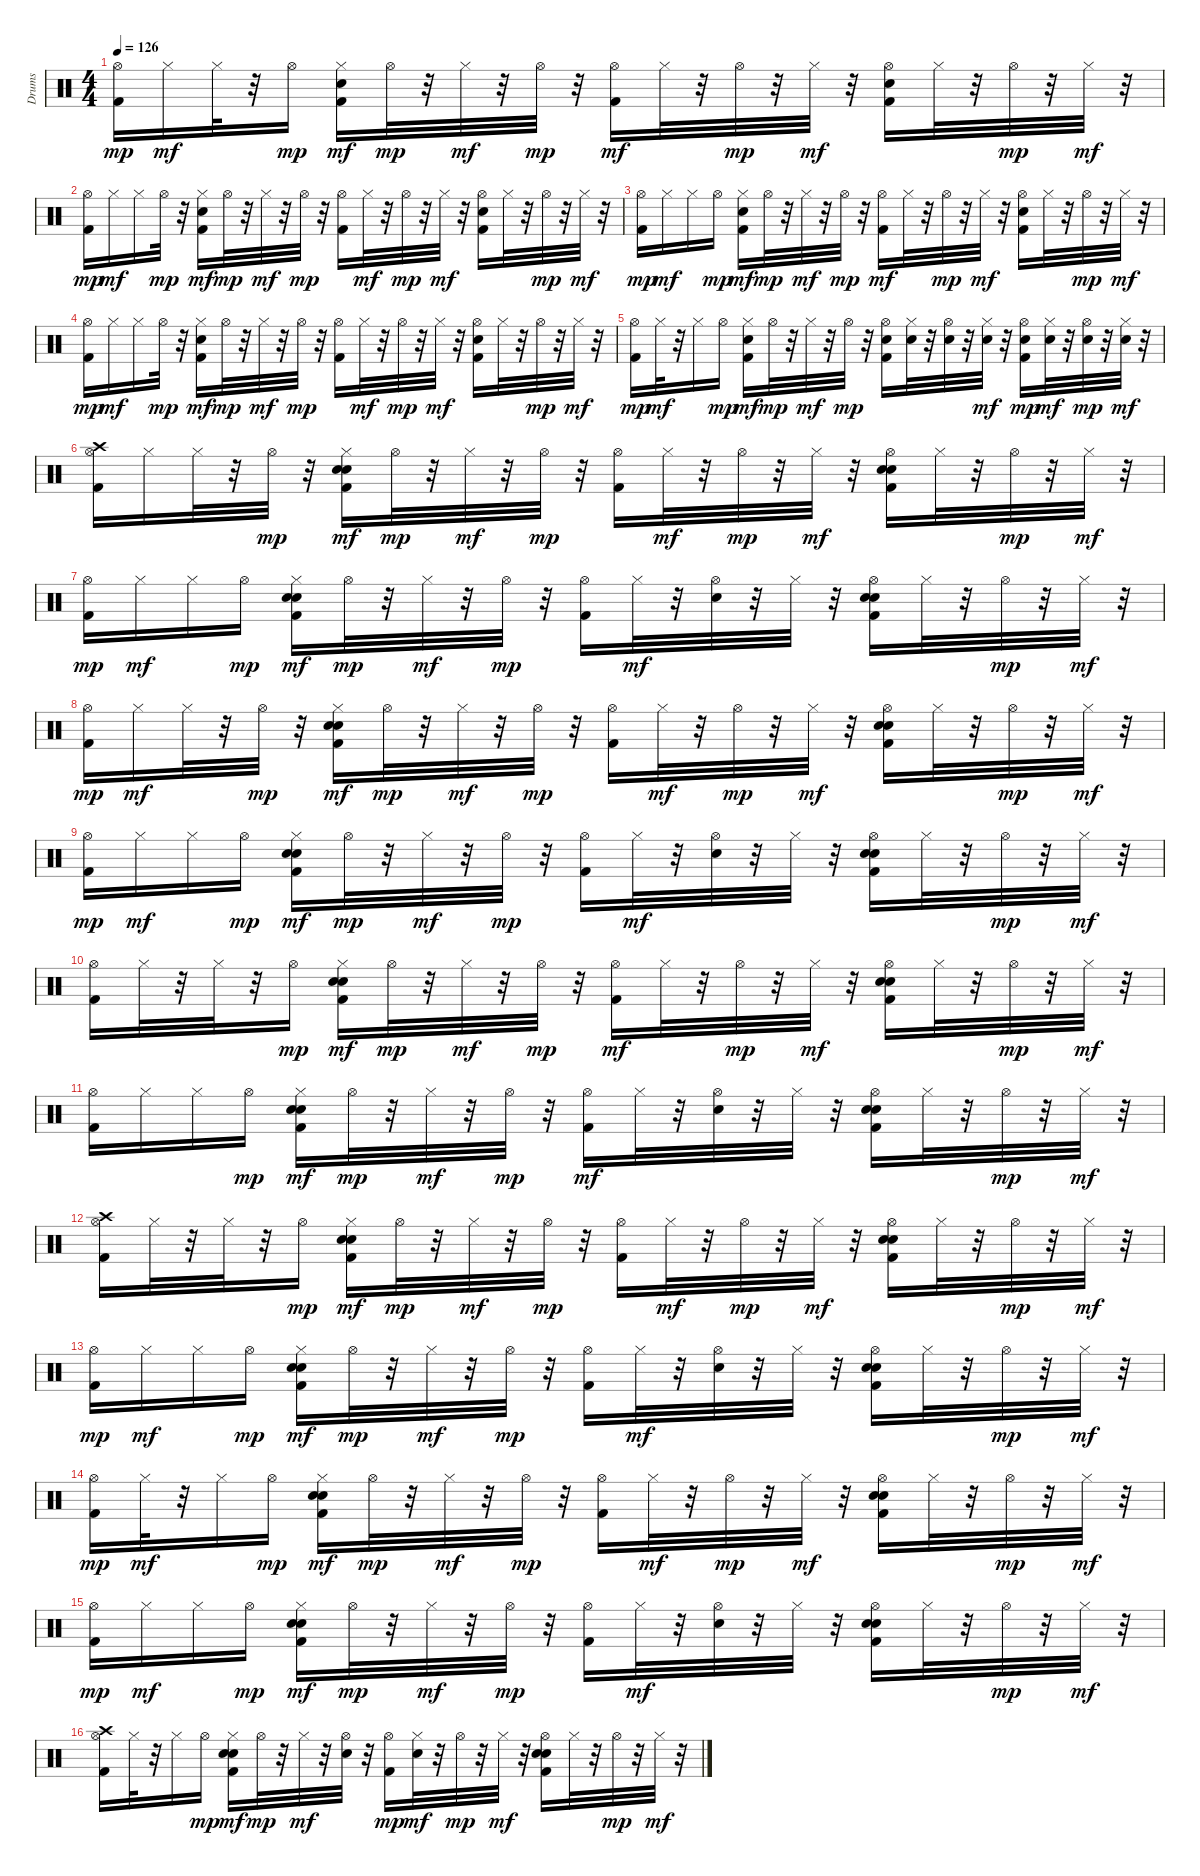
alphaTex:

\track ("Drums" "Drums") {instrument percussion}
\staff {score}
\articulation defaults
\ts (4 4)
\tempo 126
\clef neutral
\ks c
("Kick (hit) 2" "Hi-Hat (open)").16{dy mp} "Hi-Hat (closed)".16{dy mf} "Hi-Hat (closed)".32 r.32 "Hi-Hat (open)".16{dy mp} ("Kick (hit) 2" "Hi-Hat (closed)" "Electric Snare (hit)").16{dy mf} "Hi-Hat (open)".32{dy mp} r.32 "Hi-Hat (closed)".32{dy mf} r.32 "Hi-Hat (open)".32{dy mp} r.32 ("Hi-Hat (open)" "Kick (hit) 2").16{dy mf} "Hi-Hat (closed)".32 r.32 "Hi-Hat (open)".32{dy mp} r.32 "Hi-Hat (closed)".32{dy mf} r.32 ("Kick (hit) 2" "Hi-Hat (open)" "Electric Snare (hit)").16 "Hi-Hat (closed)".32 r.32 "Hi-Hat (open)".32{dy mp} r.32 "Hi-Hat (closed)".32{dy mf} r.32 |
("Kick (hit) 2" "Hi-Hat (open)").16{dy mp} "Hi-Hat (closed)".16{dy mf} "Hi-Hat (closed)".16 "Hi-Hat (open)".32{dy mp} r.32 ("Hi-Hat (closed)" "Kick (hit) 2" "Electric Snare (hit)").16{dy mf} "Hi-Hat (open)".32{dy mp} r.32 "Hi-Hat (closed)".32{dy mf} r.32 "Hi-Hat (open)".32{dy mp} r.32 ("Kick (hit) 2" "Hi-Hat (open)").16 "Hi-Hat (closed)".32{dy mf} r.32 "Hi-Hat (open)".32{dy mp} r.32 "Hi-Hat (closed)".32{dy mf} r.32 ("Kick (hit) 2" "Hi-Hat (open)" "Electric Snare (hit)").16 "Hi-Hat (closed)".32 r.32 "Hi-Hat (open)".32{dy mp} r.32 "Hi-Hat (closed)".32{dy mf} r.32 |
("Kick (hit) 2" "Hi-Hat (open)").16{dy mp} "Hi-Hat (closed)".16{dy mf} "Hi-Hat (closed)".16 "Hi-Hat (open)".16{dy mp} ("Kick (hit) 2" "Hi-Hat (closed)" "Electric Snare (hit)").16{dy mf} "Hi-Hat (open)".32{dy mp} r.32 "Hi-Hat (closed)".32{dy mf} r.32 "Hi-Hat (open)".32{dy mp} r.32 ("Hi-Hat (open)" "Kick (hit) 2").16{dy mf} "Hi-Hat (closed)".32 r.32 "Hi-Hat (open)".32{dy mp} r.32 "Hi-Hat (closed)".32{dy mf} r.32 ("Kick (hit) 2" "Hi-Hat (open)" "Electric Snare (hit)").16 "Hi-Hat (closed)".32 r.32 "Hi-Hat (open)".32{dy mp} r.32 "Hi-Hat (closed)".32{dy mf} r.32 |
("Kick (hit) 2" "Hi-Hat (open)").16{dy mp} "Hi-Hat (closed)".16{dy mf} "Hi-Hat (closed)".16 "Hi-Hat (open)".32{dy mp} r.32 ("Kick (hit) 2" "Hi-Hat (closed)" "Electric Snare (hit)").16{dy mf} "Hi-Hat (open)".32{dy mp} r.32 "Hi-Hat (closed)".32{dy mf} r.32 "Hi-Hat (open)".32{dy mp} r.32 ("Kick (hit) 2" "Hi-Hat (open)").16 "Hi-Hat (closed)".32{dy mf} r.32 "Hi-Hat (open)".32{dy mp} r.32 "Hi-Hat (closed)".32{dy mf} r.32 ("Kick (hit) 2" "Hi-Hat (open)" "Electric Snare (hit)").16 "Hi-Hat (closed)".32 r.32 "Hi-Hat (open)".32{dy mp} r.32 "Hi-Hat (closed)".32{dy mf} r.32 |
("Kick (hit) 2" "Hi-Hat (open)").16{dy mp} "Hi-Hat (closed)".32{dy mf} r.32 "Hi-Hat (closed)".16 "Hi-Hat (open)".16{dy mp} ("Kick (hit) 2" "Hi-Hat (closed)" "Electric Snare (hit)").16{dy mf} "Hi-Hat (open)".32{dy mp} r.32 "Hi-Hat (closed)".32{dy mf} r.32 "Hi-Hat (open)".32{dy mp} r.32 ("Kick (hit) 2" "Hi-Hat (open)" "Snare (hit) 2").16 ("Hi-Hat (closed)" "Snare (hit) 2").32 r.32 ("Hi-Hat (open)" "Snare (hit) 2").32 r.32 ("Hi-Hat (closed)" "Snare (hit) 2").32{dy mf} r.32 ("Kick (hit) 2" "Hi-Hat (open)" "Snare (hit) 2").16{dy mp} ("Hi-Hat (closed)" "Snare (hit) 2").32{dy mf} r.32 ("Hi-Hat (open)" "Snare (hit) 2").32{dy mp} r.32 ("Hi-Hat (closed)" "Snare (hit) 2").32{dy mf} r.32 |
("Kick (hit) 2" "Hi-Hat (open)" "Crash high (hit)").16 "Hi-Hat (closed)".16 "Hi-Hat (closed)".32 r.32 "Hi-Hat (open)".32{dy mp} r.32 ("Kick (hit) 2" "Hi-Hat (closed)" "Hand Clap (hit)" "Electric Snare (hit)").16{dy mf} "Hi-Hat (open)".32{dy mp} r.32 "Hi-Hat (closed)".32{dy mf} r.32 "Hi-Hat (open)".32{dy mp} r.32 ("Kick (hit) 2" "Hi-Hat (open)").16 "Hi-Hat (closed)".32{dy mf} r.32 "Hi-Hat (open)".32{dy mp} r.32 "Hi-Hat (closed)".32{dy mf} r.32 ("Kick (hit) 2" "Hi-Hat (open)" "Hand Clap (hit)" "Electric Snare (hit)").16 "Hi-Hat (closed)".32 r.32 "Hi-Hat (open)".32{dy mp} r.32 "Hi-Hat (closed)".32{dy mf} r.32 |
("Kick (hit) 2" "Hi-Hat (open)").16{dy mp} "Hi-Hat (closed)".16{dy mf} "Hi-Hat (closed)".16 "Hi-Hat (open)".16{dy mp} ("Kick (hit) 2" "Hi-Hat (closed)" "Hand Clap (hit)" "Electric Snare (hit)").16{dy mf} "Hi-Hat (open)".32{dy mp} r.32 "Hi-Hat (closed)".32{dy mf} r.32 "Hi-Hat (open)".32{dy mp} r.32 ("Kick (hit) 2" "Hi-Hat (open)").16 "Hi-Hat (closed)".32{dy mf} r.32 ("Hi-Hat (open)" "Hand Clap (hit)").32 r.32 "Hi-Hat (closed)".32 r.32 ("Kick (hit) 2" "Hi-Hat (open)" "Hand Clap (hit)" "Electric Snare (hit)").16 "Hi-Hat (closed)".32 r.32 "Hi-Hat (open)".32{dy mp} r.32 "Hi-Hat (closed)".32{dy mf} r.32 |
("Kick (hit) 2" "Hi-Hat (open)").16{dy mp} "Hi-Hat (closed)".16{dy mf} "Hi-Hat (closed)".32 r.32 "Hi-Hat (open)".32{dy mp} r.32 ("Kick (hit) 2" "Hi-Hat (closed)" "Hand Clap (hit)" "Electric Snare (hit)").16{dy mf} "Hi-Hat (open)".32{dy mp} r.32 "Hi-Hat (closed)".32{dy mf} r.32 "Hi-Hat (open)".32{dy mp} r.32 ("Kick (hit) 2" "Hi-Hat (open)").16 "Hi-Hat (closed)".32{dy mf} r.32 "Hi-Hat (open)".32{dy mp} r.32 "Hi-Hat (closed)".32{dy mf} r.32 ("Kick (hit) 2" "Hi-Hat (open)" "Hand Clap (hit)" "Electric Snare (hit)").16 "Hi-Hat (closed)".32 r.32 "Hi-Hat (open)".32{dy mp} r.32 "Hi-Hat (closed)".32{dy mf} r.32 |
("Kick (hit) 2" "Hi-Hat (open)").16{dy mp} "Hi-Hat (closed)".16{dy mf} "Hi-Hat (closed)".16 "Hi-Hat (open)".16{dy mp} ("Kick (hit) 2" "Hi-Hat (closed)" "Hand Clap (hit)" "Electric Snare (hit)").16{dy mf} "Hi-Hat (open)".32{dy mp} r.32 "Hi-Hat (closed)".32{dy mf} r.32 "Hi-Hat (open)".32{dy mp} r.32 ("Kick (hit) 2" "Hi-Hat (open)").16 "Hi-Hat (closed)".32{dy mf} r.32 ("Hi-Hat (open)" "Hand Clap (hit)").32 r.32 "Hi-Hat (closed)".32 r.32 ("Kick (hit) 2" "Hi-Hat (open)" "Hand Clap (hit)" "Electric Snare (hit)").16 "Hi-Hat (closed)".32 r.32 "Hi-Hat (open)".32{dy mp} r.32 "Hi-Hat (closed)".32{dy mf} r.32 |
("Hi-Hat (open)" "Kick (hit) 2").16 "Hi-Hat (closed)".32 r.32 "Hi-Hat (closed)".32 r.32 "Hi-Hat (open)".16{dy mp} ("Hi-Hat (closed)" "Hand Clap (hit)" "Kick (hit) 2" "Electric Snare (hit)").16{dy mf} "Hi-Hat (open)".32{dy mp} r.32 "Hi-Hat (closed)".32{dy mf} r.32 "Hi-Hat (open)".32{dy mp} r.32 ("Hi-Hat (open)" "Kick (hit) 2").16{dy mf} "Hi-Hat (closed)".32 r.32 "Hi-Hat (open)".32{dy mp} r.32 "Hi-Hat (closed)".32{dy mf} r.32 ("Hi-Hat (open)" "Hand Clap (hit)" "Kick (hit) 2" "Electric Snare (hit)").16 "Hi-Hat (closed)".32 r.32 "Hi-Hat (open)".32{dy mp} r.32 "Hi-Hat (closed)".32{dy mf} r.32 |
("Hi-Hat (open)" "Kick (hit) 2").16 "Hi-Hat (closed)".16 "Hi-Hat (closed)".16 "Hi-Hat (open)".16{dy mp} ("Hi-Hat (closed)" "Hand Clap (hit)" "Kick (hit) 2" "Electric Snare (hit)").16{dy mf} "Hi-Hat (open)".32{dy mp} r.32 "Hi-Hat (closed)".32{dy mf} r.32 "Hi-Hat (open)".32{dy mp} r.32 ("Hi-Hat (open)" "Kick (hit) 2").16{dy mf} "Hi-Hat (closed)".32 r.32 ("Hi-Hat (open)" "Hand Clap (hit)").32 r.32 "Hi-Hat (closed)".32 r.32 ("Hi-Hat (open)" "Hand Clap (hit)" "Kick (hit) 2" "Electric Snare (hit)").16 "Hi-Hat (closed)".32 r.32 "Hi-Hat (open)".32{dy mp} r.32 "Hi-Hat (closed)".32{dy mf} r.32 |
("Kick (hit) 2" "Hi-Hat (open)" "Crash high (hit)").16 "Hi-Hat (closed)".32 r.32 "Hi-Hat (closed)".32 r.32 "Hi-Hat (open)".16{dy mp} ("Kick (hit) 2" "Hi-Hat (closed)" "Hand Clap (hit)" "Electric Snare (hit)").16{dy mf} "Hi-Hat (open)".32{dy mp} r.32 "Hi-Hat (closed)".32{dy mf} r.32 "Hi-Hat (open)".32{dy mp} r.32 ("Kick (hit) 2" "Hi-Hat (open)").16 "Hi-Hat (closed)".32{dy mf} r.32 "Hi-Hat (open)".32{dy mp} r.32 "Hi-Hat (closed)".32{dy mf} r.32 ("Kick (hit) 2" "Hi-Hat (open)" "Hand Clap (hit)" "Electric Snare (hit)").16 "Hi-Hat (closed)".32 r.32 "Hi-Hat (open)".32{dy mp} r.32 "Hi-Hat (closed)".32{dy mf} r.32 |
("Kick (hit) 2" "Hi-Hat (open)").16{dy mp} "Hi-Hat (closed)".16{dy mf} "Hi-Hat (closed)".16 "Hi-Hat (open)".16{dy mp} ("Kick (hit) 2" "Hi-Hat (closed)" "Hand Clap (hit)" "Electric Snare (hit)").16{dy mf} "Hi-Hat (open)".32{dy mp} r.32 "Hi-Hat (closed)".32{dy mf} r.32 "Hi-Hat (open)".32{dy mp} r.32 ("Kick (hit) 2" "Hi-Hat (open)").16 "Hi-Hat (closed)".32{dy mf} r.32 ("Hi-Hat (open)" "Hand Clap (hit)").32 r.32 "Hi-Hat (closed)".32 r.32 ("Kick (hit) 2" "Hi-Hat (open)" "Hand Clap (hit)" "Electric Snare (hit)").16 "Hi-Hat (closed)".32 r.32 "Hi-Hat (open)".32{dy mp} r.32 "Hi-Hat (closed)".32{dy mf} r.32 |
("Kick (hit) 2" "Hi-Hat (open)").16{dy mp} "Hi-Hat (closed)".32{dy mf} r.32 "Hi-Hat (closed)".16 "Hi-Hat (open)".16{dy mp} ("Kick (hit) 2" "Hi-Hat (closed)" "Hand Clap (hit)" "Electric Snare (hit)").16{dy mf} "Hi-Hat (open)".32{dy mp} r.32 "Hi-Hat (closed)".32{dy mf} r.32 "Hi-Hat (open)".32{dy mp} r.32 ("Kick (hit) 2" "Hi-Hat (open)").16 "Hi-Hat (closed)".32{dy mf} r.32 "Hi-Hat (open)".32{dy mp} r.32 "Hi-Hat (closed)".32{dy mf} r.32 ("Kick (hit) 2" "Hi-Hat (open)" "Hand Clap (hit)" "Electric Snare (hit)").16 "Hi-Hat (closed)".32 r.32 "Hi-Hat (open)".32{dy mp} r.32 "Hi-Hat (closed)".32{dy mf} r.32 |
("Kick (hit) 2" "Hi-Hat (open)").16{dy mp} "Hi-Hat (closed)".16{dy mf} "Hi-Hat (closed)".16 "Hi-Hat (open)".16{dy mp} ("Kick (hit) 2" "Hi-Hat (closed)" "Hand Clap (hit)" "Electric Snare (hit)").16{dy mf} "Hi-Hat (open)".32{dy mp} r.32 "Hi-Hat (closed)".32{dy mf} r.32 "Hi-Hat (open)".32{dy mp} r.32 ("Kick (hit) 2" "Hi-Hat (open)").16 "Hi-Hat (closed)".32{dy mf} r.32 ("Hi-Hat (open)" "Hand Clap (hit)").32 r.32 "Hi-Hat (closed)".32 r.32 ("Kick (hit) 2" "Hi-Hat (open)" "Hand Clap (hit)" "Electric Snare (hit)").16 "Hi-Hat (closed)".32 r.32 "Hi-Hat (open)".32{dy mp} r.32 "Hi-Hat (closed)".32{dy mf} r.32 |
("Kick (hit) 2" "Hi-Hat (open)" "Crash high (hit)").16 "Hi-Hat (closed)".32 r.32 "Hi-Hat (closed)".16 "Hi-Hat (open)".16{dy mp} ("Kick (hit) 2" "Hi-Hat (closed)" "Hand Clap (hit)" "Electric Snare (hit)").16{dy mf} "Hi-Hat (open)".32{dy mp} r.32 "Hi-Hat (closed)".32{dy mf} r.32 ("Hi-Hat (open)" "Snare (hit) 2").32 r.32 ("Kick (hit) 2" "Hi-Hat (open)").16{dy mp} ("Hi-Hat (closed)" "Snare (hit) 2").32{dy mf} r.32 "Hi-Hat (open)".32{dy mp} r.32 "Hi-Hat (closed)".32{dy mf} r.32 ("Kick (hit) 2" "Hi-Hat (open)" "Hand Clap (hit)" "Electric Snare (hit)").16 "Hi-Hat (closed)".32 r.32 "Hi-Hat (open)".32{dy mp} r.32 "Hi-Hat (closed)".32{dy mf} r.32
